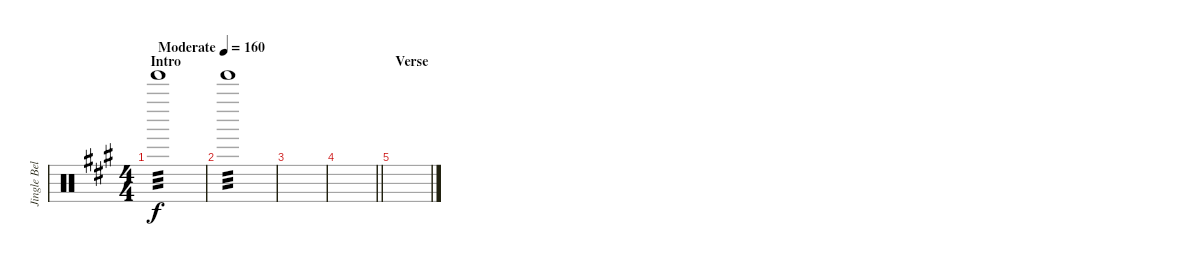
\track ("Jingle Bells" "Jingle Bel") {instrument percussion}
\staff {score}
\articulation defaults
\ts (4 4)
\section ("" "Intro")
\tempo (160 "Moderate")
\clef neutral
\ks a "Tinkle Bell (hit)".1{tp 3 dy f}
|
"Tinkle Bell (hit)".1{tp 3} |
|
\barLineRight lightlight
|
\section ("" "Verse")
